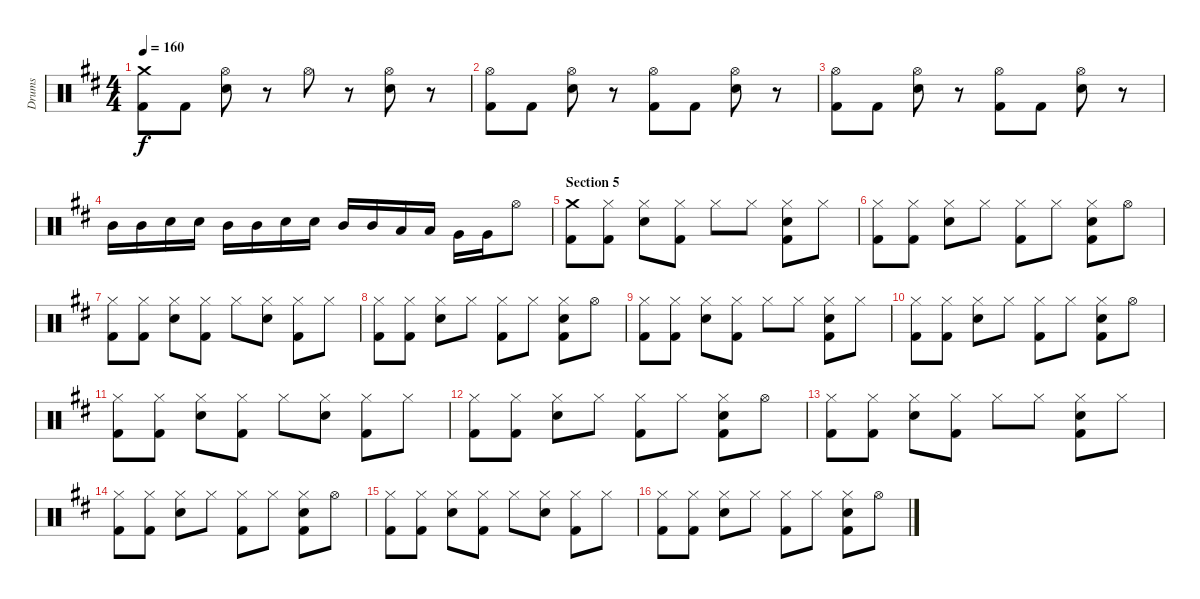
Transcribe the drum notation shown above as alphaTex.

\track ("Drums" "Drums") {instrument percussion}
\staff {score}
\articulation defaults
\ts (4 4)
\tempo 160
\clef neutral
\ks bminor
("Crash medium (hit)" "Kick (hit) 2").8{dy f} "Kick (hit) 2".8 ("Hi-Hat (open)" "Snare (hit) 2").8 r.8 "Hi-Hat (open)".8 r.8 ("Hi-Hat (open)" "Snare (hit) 2").8 r.8 |
("Hi-Hat (open)" "Kick (hit) 2").8 "Kick (hit) 2".8 ("Hi-Hat (open)" "Snare (hit) 2").8 r.8 ("Hi-Hat (open)" "Kick (hit) 2").8 "Kick (hit) 2".8 ("Hi-Hat (open)" "Snare (hit) 2").8 r.8 |
("Hi-Hat (open)" "Kick (hit) 2").8 "Kick (hit) 2".8 ("Hi-Hat (open)" "Snare (hit) 2").8 r.8 ("Hi-Hat (open)" "Kick (hit) 2").8 "Kick (hit) 2".8 ("Hi-Hat (open)" "Snare (hit) 2").8 r.8 |
"Mid Tom (hit)".16 "Mid Tom (hit)".16 "Snare (hit) 2".16 "Snare (hit) 2".16 "Mid Tom (hit)".16 "Mid Tom (hit)".16 "Snare (hit) 2".16 "Snare (hit) 2".16 "Mid Tom (hit)".16 "Mid Tom (hit)".16 "Low Tom (hit)".16 "Low Tom (hit)".16 "Very Low Tom (hit)".16 "Very Low Tom (hit)".16 "Hi-Hat (open)".8 |
\section ("" "Section 5")
("Crash medium (hit)" "Kick (hit) 2").8 ("Hi-Hat (closed)" "Kick (hit) 2").8 ("Hi-Hat (closed)" "Snare (hit) 2").8 ("Hi-Hat (closed)" "Kick (hit) 2").8 "Hi-Hat (closed)".8 "Hi-Hat (closed)".8 ("Hi-Hat (closed)" "Snare (hit) 2" "Kick (hit) 2").8 "Hi-Hat (closed)".8 |
("Hi-Hat (closed)" "Kick (hit) 2").8 ("Hi-Hat (closed)" "Kick (hit) 2").8 ("Hi-Hat (closed)" "Snare (hit) 2").8 "Hi-Hat (closed)".8 ("Hi-Hat (closed)" "Kick (hit) 2").8 "Hi-Hat (closed)".8 ("Hi-Hat (closed)" "Snare (hit) 2" "Kick (hit) 2").8 "Hi-Hat (open)".8 |
("Hi-Hat (closed)" "Kick (hit) 2").8 ("Hi-Hat (closed)" "Kick (hit) 2").8 ("Hi-Hat (closed)" "Snare (hit) 2").8 ("Hi-Hat (closed)" "Kick (hit) 2").8 "Hi-Hat (closed)".8 ("Hi-Hat (closed)" "Snare (hit) 2").8 ("Hi-Hat (closed)" "Kick (hit) 2").8 "Hi-Hat (closed)".8 |
("Hi-Hat (closed)" "Kick (hit) 2").8 ("Hi-Hat (closed)" "Kick (hit) 2").8 ("Hi-Hat (closed)" "Snare (hit) 2").8 "Hi-Hat (closed)".8 ("Hi-Hat (closed)" "Kick (hit) 2").8 "Hi-Hat (closed)".8 ("Hi-Hat (closed)" "Snare (hit) 2" "Kick (hit) 2").8 "Hi-Hat (open)".8 |
("Hi-Hat (closed)" "Kick (hit) 2").8 ("Hi-Hat (closed)" "Kick (hit) 2").8 ("Hi-Hat (closed)" "Snare (hit) 2").8 ("Hi-Hat (closed)" "Kick (hit) 2").8 "Hi-Hat (closed)".8 "Hi-Hat (closed)".8 ("Hi-Hat (closed)" "Snare (hit) 2" "Kick (hit) 2").8 "Hi-Hat (closed)".8 |
("Hi-Hat (closed)" "Kick (hit) 2").8 ("Hi-Hat (closed)" "Kick (hit) 2").8 ("Hi-Hat (closed)" "Snare (hit) 2").8 "Hi-Hat (closed)".8 ("Hi-Hat (closed)" "Kick (hit) 2").8 "Hi-Hat (closed)".8 ("Hi-Hat (closed)" "Snare (hit) 2" "Kick (hit) 2").8 "Hi-Hat (open)".8 |
("Hi-Hat (closed)" "Kick (hit) 2").8 ("Hi-Hat (closed)" "Kick (hit) 2").8 ("Hi-Hat (closed)" "Snare (hit) 2").8 ("Hi-Hat (closed)" "Kick (hit) 2").8 "Hi-Hat (closed)".8 ("Hi-Hat (closed)" "Snare (hit) 2").8 ("Hi-Hat (closed)" "Kick (hit) 2").8 "Hi-Hat (closed)".8 |
("Hi-Hat (closed)" "Kick (hit) 2").8 ("Hi-Hat (closed)" "Kick (hit) 2").8 ("Hi-Hat (closed)" "Snare (hit) 2").8 "Hi-Hat (closed)".8 ("Hi-Hat (closed)" "Kick (hit) 2").8 "Hi-Hat (closed)".8 ("Hi-Hat (closed)" "Snare (hit) 2" "Kick (hit) 2").8 "Hi-Hat (open)".8 |
("Hi-Hat (closed)" "Kick (hit) 2").8 ("Hi-Hat (closed)" "Kick (hit) 2").8 ("Hi-Hat (closed)" "Snare (hit) 2").8 ("Hi-Hat (closed)" "Kick (hit) 2").8 "Hi-Hat (closed)".8 "Hi-Hat (closed)".8 ("Hi-Hat (closed)" "Snare (hit) 2" "Kick (hit) 2").8 "Hi-Hat (closed)".8 |
("Hi-Hat (closed)" "Kick (hit) 2").8 ("Hi-Hat (closed)" "Kick (hit) 2").8 ("Hi-Hat (closed)" "Snare (hit) 2").8 "Hi-Hat (closed)".8 ("Hi-Hat (closed)" "Kick (hit) 2").8 "Hi-Hat (closed)".8 ("Hi-Hat (closed)" "Snare (hit) 2" "Kick (hit) 2").8 "Hi-Hat (open)".8 |
("Hi-Hat (closed)" "Kick (hit) 2").8 ("Hi-Hat (closed)" "Kick (hit) 2").8 ("Hi-Hat (closed)" "Snare (hit) 2").8 ("Hi-Hat (closed)" "Kick (hit) 2").8 "Hi-Hat (closed)".8 ("Hi-Hat (closed)" "Snare (hit) 2").8 ("Hi-Hat (closed)" "Kick (hit) 2").8 "Hi-Hat (closed)".8 |
("Hi-Hat (closed)" "Kick (hit) 2").8 ("Hi-Hat (closed)" "Kick (hit) 2").8 ("Hi-Hat (closed)" "Snare (hit) 2").8 "Hi-Hat (closed)".8 ("Hi-Hat (closed)" "Kick (hit) 2").8 "Hi-Hat (closed)".8 ("Hi-Hat (closed)" "Snare (hit) 2" "Kick (hit) 2").8 "Hi-Hat (open)".8
